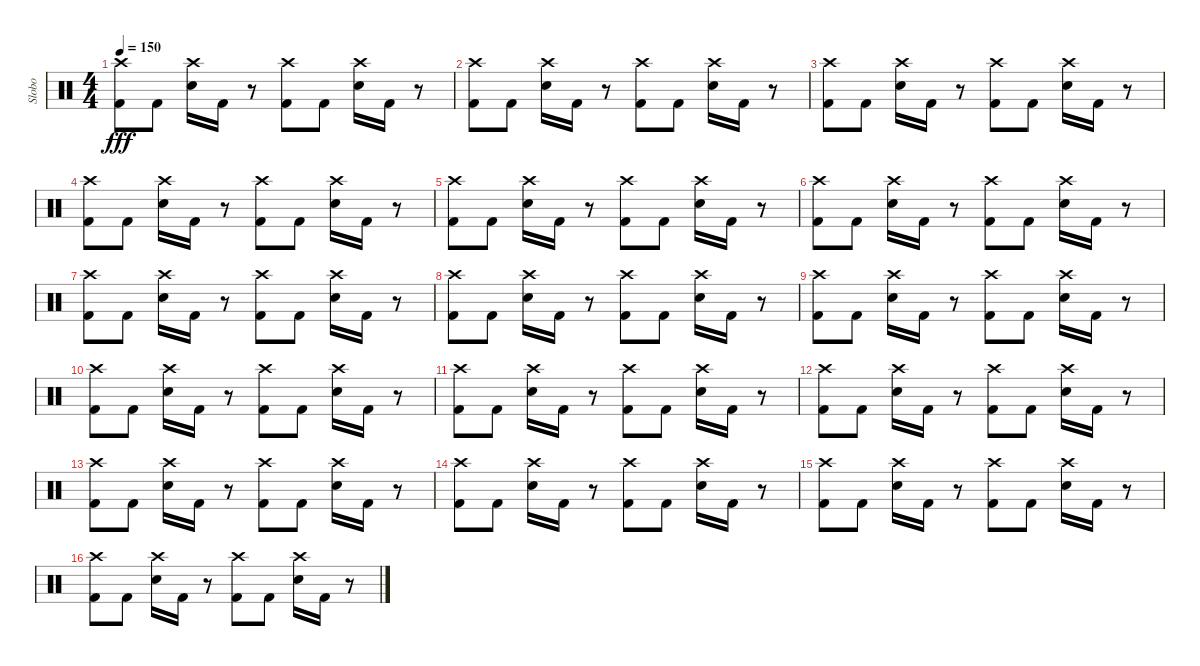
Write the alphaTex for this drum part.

\track ("Slobo" "Slobo") {instrument percussion}
\staff {score}
\articulation defaults
\ts (4 4)
\tempo 150
\clef neutral
\ks c
("Crash high (hit)" "Kick (hit) 2").8{dy fff} "Kick (hit) 2".8 ("Crash high (hit)" "Snare (hit) 2").16 "Kick (hit) 2".16 r.8 ("Crash high (hit)" "Kick (hit) 2").8 "Kick (hit) 2".8 ("Crash high (hit)" "Snare (hit) 2").16 "Kick (hit) 2".16 r.8 |
("Crash high (hit)" "Kick (hit) 2").8 "Kick (hit) 2".8 ("Crash high (hit)" "Snare (hit) 2").16 "Kick (hit) 2".16 r.8 ("Crash high (hit)" "Kick (hit) 2").8 "Kick (hit) 2".8 ("Crash high (hit)" "Snare (hit) 2").16 "Kick (hit) 2".16 r.8 |
("Crash high (hit)" "Kick (hit) 2").8 "Kick (hit) 2".8 ("Crash high (hit)" "Snare (hit) 2").16 "Kick (hit) 2".16 r.8 ("Crash high (hit)" "Kick (hit) 2").8 "Kick (hit) 2".8 ("Crash high (hit)" "Snare (hit) 2").16 "Kick (hit) 2".16 r.8 |
("Crash high (hit)" "Kick (hit) 2").8 "Kick (hit) 2".8 ("Crash high (hit)" "Snare (hit) 2").16 "Kick (hit) 2".16 r.8 ("Crash high (hit)" "Kick (hit) 2").8 "Kick (hit) 2".8 ("Crash high (hit)" "Snare (hit) 2").16 "Kick (hit) 2".16 r.8 |
("Crash high (hit)" "Kick (hit) 2").8 "Kick (hit) 2".8 ("Crash high (hit)" "Snare (hit) 2").16 "Kick (hit) 2".16 r.8 ("Crash high (hit)" "Kick (hit) 2").8 "Kick (hit) 2".8 ("Crash high (hit)" "Snare (hit) 2").16 "Kick (hit) 2".16 r.8 |
("Crash high (hit)" "Kick (hit) 2").8 "Kick (hit) 2".8 ("Crash high (hit)" "Snare (hit) 2").16 "Kick (hit) 2".16 r.8 ("Crash high (hit)" "Kick (hit) 2").8 "Kick (hit) 2".8 ("Crash high (hit)" "Snare (hit) 2").16 "Kick (hit) 2".16 r.8 |
("Crash high (hit)" "Kick (hit) 2").8 "Kick (hit) 2".8 ("Crash high (hit)" "Snare (hit) 2").16 "Kick (hit) 2".16 r.8 ("Crash high (hit)" "Kick (hit) 2").8 "Kick (hit) 2".8 ("Crash high (hit)" "Snare (hit) 2").16 "Kick (hit) 2".16 r.8 |
("Crash high (hit)" "Kick (hit) 2").8 "Kick (hit) 2".8 ("Crash high (hit)" "Snare (hit) 2").16 "Kick (hit) 2".16 r.8 ("Crash high (hit)" "Kick (hit) 2").8 "Kick (hit) 2".8 ("Crash high (hit)" "Snare (hit) 2").16 "Kick (hit) 2".16 r.8 |
("Crash high (hit)" "Kick (hit) 2").8 "Kick (hit) 2".8 ("Crash high (hit)" "Snare (hit) 2").16 "Kick (hit) 2".16 r.8 ("Crash high (hit)" "Kick (hit) 2").8 "Kick (hit) 2".8 ("Crash high (hit)" "Snare (hit) 2").16 "Kick (hit) 2".16 r.8 |
("Crash high (hit)" "Kick (hit) 2").8 "Kick (hit) 2".8 ("Crash high (hit)" "Snare (hit) 2").16 "Kick (hit) 2".16 r.8 ("Crash high (hit)" "Kick (hit) 2").8 "Kick (hit) 2".8 ("Crash high (hit)" "Snare (hit) 2").16 "Kick (hit) 2".16 r.8 |
("Crash high (hit)" "Kick (hit) 2").8 "Kick (hit) 2".8 ("Crash high (hit)" "Snare (hit) 2").16 "Kick (hit) 2".16 r.8 ("Crash high (hit)" "Kick (hit) 2").8 "Kick (hit) 2".8 ("Crash high (hit)" "Snare (hit) 2").16 "Kick (hit) 2".16 r.8 |
("Crash high (hit)" "Kick (hit) 2").8 "Kick (hit) 2".8 ("Crash high (hit)" "Snare (hit) 2").16 "Kick (hit) 2".16 r.8 ("Crash high (hit)" "Kick (hit) 2").8 "Kick (hit) 2".8 ("Crash high (hit)" "Snare (hit) 2").16 "Kick (hit) 2".16 r.8 |
("Crash high (hit)" "Kick (hit) 2").8 "Kick (hit) 2".8 ("Crash high (hit)" "Snare (hit) 2").16 "Kick (hit) 2".16 r.8 ("Crash high (hit)" "Kick (hit) 2").8 "Kick (hit) 2".8 ("Crash high (hit)" "Snare (hit) 2").16 "Kick (hit) 2".16 r.8 |
("Crash high (hit)" "Kick (hit) 2").8 "Kick (hit) 2".8 ("Crash high (hit)" "Snare (hit) 2").16 "Kick (hit) 2".16 r.8 ("Crash high (hit)" "Kick (hit) 2").8 "Kick (hit) 2".8 ("Crash high (hit)" "Snare (hit) 2").16 "Kick (hit) 2".16 r.8 |
("Crash high (hit)" "Kick (hit) 2").8 "Kick (hit) 2".8 ("Crash high (hit)" "Snare (hit) 2").16 "Kick (hit) 2".16 r.8 ("Crash high (hit)" "Kick (hit) 2").8 "Kick (hit) 2".8 ("Crash high (hit)" "Snare (hit) 2").16 "Kick (hit) 2".16 r.8 |
("Crash high (hit)" "Kick (hit) 2").8 "Kick (hit) 2".8 ("Crash high (hit)" "Snare (hit) 2").16 "Kick (hit) 2".16 r.8 ("Crash high (hit)" "Kick (hit) 2").8 "Kick (hit) 2".8 ("Crash high (hit)" "Snare (hit) 2").16 "Kick (hit) 2".16 r.8
